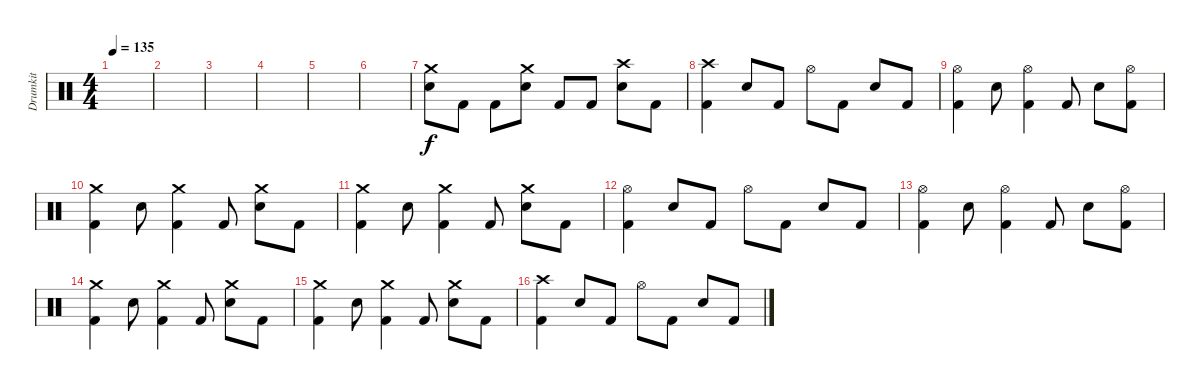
\track ("Drumkit" "Drumkit") {instrument percussion}
\staff {score}
\articulation defaults
\ts (4 4)
\tempo 135
\clef neutral
\ks c
|
|
|
|
|
|
("Crash medium (hit)" "Snare (hit) 2").8 "Kick (hit) 2".8 "Kick (hit) 2".8 ("Crash medium (hit)" "Snare (hit) 2").8 "Kick (hit) 2".8 "Kick (hit) 2".8 ("Crash high (hit)" "Snare (hit) 2").8 "Kick (hit) 2".8 |
("Crash high (hit)" "Kick (hit) 2").4 "Snare (hit) 2".8 "Kick (hit) 2".8 "Hi-Hat (open)".8 "Kick (hit) 2".8 "Snare (hit) 2".8 "Kick (hit) 2".8 |
("Hi-Hat (open)" "Kick (hit) 2").4 "Snare (hit) 2".8 ("Hi-Hat (open)" "Kick (hit) 2").4 "Kick (hit) 2".8 "Snare (hit) 2".8 ("Hi-Hat (open)" "Kick (hit) 2").8 |
("Crash medium (hit)" "Kick (hit) 2").4 "Snare (hit) 2".8 ("Crash medium (hit)" "Kick (hit) 2").4 "Kick (hit) 2".8 ("Crash medium (hit)" "Snare (hit) 2").8 "Kick (hit) 2".8 |
("Crash medium (hit)" "Kick (hit) 2").4 "Snare (hit) 2".8 ("Crash medium (hit)" "Kick (hit) 2").4 "Kick (hit) 2".8 ("Crash medium (hit)" "Snare (hit) 2").8 "Kick (hit) 2".8 |
("Hi-Hat (open)" "Kick (hit) 2").4 "Snare (hit) 2".8 "Kick (hit) 2".8 "Hi-Hat (open)".8 "Kick (hit) 2".8 "Snare (hit) 2".8 "Kick (hit) 2".8 |
("Hi-Hat (open)" "Kick (hit) 2").4 "Snare (hit) 2".8 ("Hi-Hat (open)" "Kick (hit) 2").4 "Kick (hit) 2".8 "Snare (hit) 2".8 ("Hi-Hat (open)" "Kick (hit) 2").8 |
("Crash medium (hit)" "Kick (hit) 2").4 "Snare (hit) 2".8 ("Crash medium (hit)" "Kick (hit) 2").4 "Kick (hit) 2".8 ("Crash medium (hit)" "Snare (hit) 2").8 "Kick (hit) 2".8 |
("Crash medium (hit)" "Kick (hit) 2").4 "Snare (hit) 2".8 ("Crash medium (hit)" "Kick (hit) 2").4 "Kick (hit) 2".8 ("Crash medium (hit)" "Snare (hit) 2").8 "Kick (hit) 2".8 |
("Crash high (hit)" "Kick (hit) 2").4 "Snare (hit) 2".8 "Kick (hit) 2".8 "Hi-Hat (open)".8 "Kick (hit) 2".8 "Snare (hit) 2".8 "Kick (hit) 2".8
